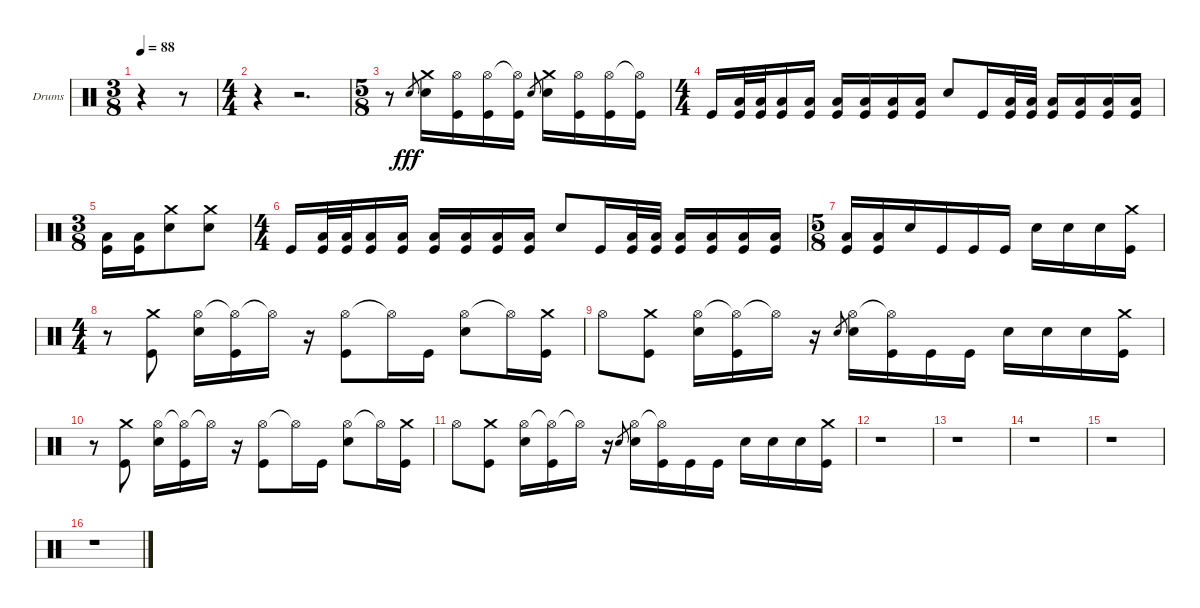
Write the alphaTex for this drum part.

\bracketExtendMode groupsimilarinstruments
\firstSystemTrackNameOrientation horizontal
\otherSystemsTrackNameOrientation horizontal
\track ("Drumkit" "Drums") {instrument percussion}
\staff {score}
\articulation defaults
\ts (3 8)
\tempo 88
\clef neutral
\scale
0.333333
\ks c
r.4{dy fff} r.8 |
\ts (4 4)
\scale
0.333333 r.4 r.2{d} |
\ts (5 8)
\scale
0.333333 r.8 "Snare (hit) 2".8{gr} ("Crash medium (hit)" "Snare (hit) 2").16 ("Hi-Hat (open)" "Kick (hit)").16 ("Hi-Hat (open)" "Kick (hit)").16 ("Hi-Hat (open)"{t} "Kick (hit)").16 "Snare (hit) 2".8{gr} ("Crash medium (hit)" "Snare (hit) 2").16 ("Hi-Hat (open)" "Kick (hit)").16 ("Hi-Hat (open)" "Kick (hit)").16 ("Hi-Hat (open)"{t} "Kick (hit)").16 |
\ts (4 4)
\scale
0.333333 "Kick (hit)".16 ("Low Tom (hit)" "Kick (hit)").32 ("Low Tom (hit)" "Kick (hit)").32 ("Low Tom (hit)" "Kick (hit)").16 ("Low Tom (hit)" "Kick (hit)").16 ("Low Tom (hit)" "Kick (hit)").16 ("Low Tom (hit)" "Kick (hit)").16 ("Low Tom (hit)" "Kick (hit)").16 ("Low Tom (hit)" "Kick (hit)").16 "Snare (hit) 2".8 "Kick (hit)".16 ("Low Tom (hit)" "Kick (hit)").32 ("Low Tom (hit)" "Kick (hit)").32 ("Low Tom (hit)" "Kick (hit)").16 ("Low Tom (hit)" "Kick (hit)").16 ("Low Tom (hit)" "Kick (hit)").16 ("Low Tom (hit)" "Kick (hit)").16 |
\ts (3 8)
\scale
0.333333 ("Low Tom (hit)" "Kick (hit)").16 ("Low Tom (hit)" "Kick (hit)").16 ("Crash medium (hit)" "Snare (hit) 2").8 ("Crash medium (hit)" "Snare (hit) 2").8 |
\ts (4 4)
\scale
0.333333 "Kick (hit)".16 ("Low Tom (hit)" "Kick (hit)").32 ("Low Tom (hit)" "Kick (hit)").32 ("Low Tom (hit)" "Kick (hit)").16 ("Low Tom (hit)" "Kick (hit)").16 ("Low Tom (hit)" "Kick (hit)").16 ("Low Tom (hit)" "Kick (hit)").16 ("Low Tom (hit)" "Kick (hit)").16 ("Low Tom (hit)" "Kick (hit)").16 "Snare (hit) 2".8 "Kick (hit)".16 ("Low Tom (hit)" "Kick (hit)").32 ("Low Tom (hit)" "Kick (hit)").32 ("Low Tom (hit)" "Kick (hit)").16 ("Low Tom (hit)" "Kick (hit)").16 ("Low Tom (hit)" "Kick (hit)").16 ("Low Tom (hit)" "Kick (hit)").16 |
\ts (5 8)
\scale
0.390805 ("Low Tom (hit)" "Kick (hit)").16 ("Low Tom (hit)" "Kick (hit)").16 "Snare (hit) 2".16 "Kick (hit)".16 "Kick (hit)".16 "Kick (hit)".16 "Snare (hit) 2".16 "Snare (hit) 2".16 "Snare (hit) 2".16 ("Crash medium (hit)" "Kick (hit)").16 |
\ts (4 4)
\scale
0.390805 r.8 ("Crash medium (hit)" "Kick (hit)").8 ("Hi-Hat (open)" "Snare (hit) 2").16 ("Hi-Hat (open)"{t} "Kick (hit)").16 "Hi-Hat (open)"{t}.16 r.16 ("Hi-Hat (open)" "Kick (hit)").8 "Hi-Hat (open)"{t}.16 "Kick (hit)".16 ("Hi-Hat (open)" "Snare (hit) 2").8 "Hi-Hat (open)"{t}.16 ("Crash medium (hit)" "Kick (hit)").16 |
\scale
0.218391 "Hi-Hat (open)".8 ("Crash medium (hit)" "Kick (hit)").8 ("Hi-Hat (open)" "Snare (hit) 2").16 ("Hi-Hat (open)"{t} "Kick (hit)").16 "Hi-Hat (open)"{t}.16 r.16 "Snare (hit) 2".8{gr} ("Hi-Hat (open)" "Snare (hit) 2").16 ("Hi-Hat (open)"{t} "Kick (hit)").16 "Kick (hit)".16 "Kick (hit)".16 "Snare (hit) 2".16 "Snare (hit) 2".16 "Snare (hit) 2".16 ("Crash medium (hit)" "Kick (hit)").16 |
\scale
0.333333 r.8 ("Crash medium (hit)" "Kick (hit)").8 ("Hi-Hat (open)" "Snare (hit) 2").16 ("Hi-Hat (open)"{t} "Kick (hit)").16 "Hi-Hat (open)"{t}.16 r.16 ("Hi-Hat (open)" "Kick (hit)").8 "Hi-Hat (open)"{t}.16 "Kick (hit)".16 ("Hi-Hat (open)" "Snare (hit) 2").8 "Hi-Hat (open)"{t}.16 ("Crash medium (hit)" "Kick (hit)").16 |
\scale
0.333333 "Hi-Hat (open)".8 ("Crash medium (hit)" "Kick (hit)").8 ("Hi-Hat (open)" "Snare (hit) 2").16 ("Hi-Hat (open)"{t} "Kick (hit)").16 "Hi-Hat (open)"{t}.16 r.16 "Snare (hit) 2".8{gr} ("Hi-Hat (open)" "Snare (hit) 2").16 ("Hi-Hat (open)"{t} "Kick (hit)").16 "Kick (hit)".16 "Kick (hit)".16 "Snare (hit) 2".16 "Snare (hit) 2".16 "Snare (hit) 2".16 ("Crash medium (hit)" "Kick (hit)").16 |
\scale
0.333333 r.1 |
\scale
0.333333 r.1 |
\scale
0.333333 r.1 |
\scale
0.333333 r.1 |
\scale
0.333333 r.1
